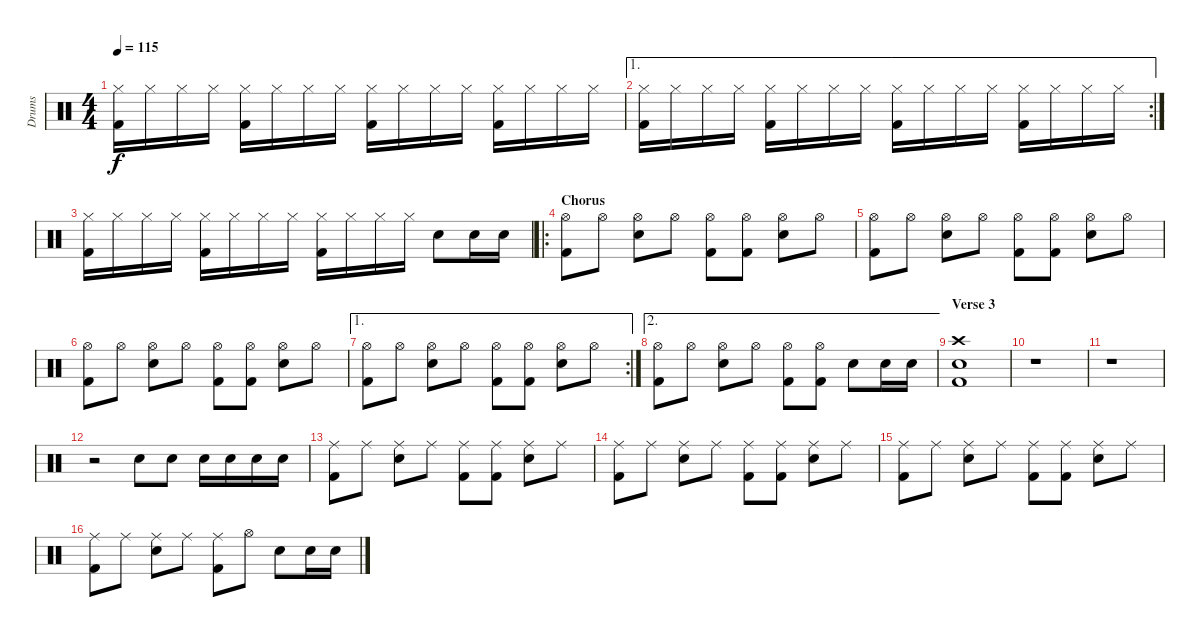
\track ("Drums" "Drums") {instrument percussion}
\staff {score}
\articulation defaults
\ts (4 4)
\tempo 115
\clef neutral
\ks c
("Hi-Hat (closed)" "Kick (hit) 2").16{dy f} "Hi-Hat (closed)".16 "Hi-Hat (closed)".16 "Hi-Hat (closed)".16 ("Hi-Hat (closed)" "Kick (hit) 2").16 "Hi-Hat (closed)".16 "Hi-Hat (closed)".16 "Hi-Hat (closed)".16 ("Hi-Hat (closed)" "Kick (hit) 2").16 "Hi-Hat (closed)".16 "Hi-Hat (closed)".16 "Hi-Hat (closed)".16 ("Hi-Hat (closed)" "Kick (hit) 2").16 "Hi-Hat (closed)".16 "Hi-Hat (closed)".16 "Hi-Hat (closed)".16 |
\ae 1
\rc 2
("Hi-Hat (closed)" "Kick (hit) 2").16 "Hi-Hat (closed)".16 "Hi-Hat (closed)".16 "Hi-Hat (closed)".16 ("Hi-Hat (closed)" "Kick (hit) 2").16 "Hi-Hat (closed)".16 "Hi-Hat (closed)".16 "Hi-Hat (closed)".16 ("Hi-Hat (closed)" "Kick (hit) 2").16 "Hi-Hat (closed)".16 "Hi-Hat (closed)".16 "Hi-Hat (closed)".16 ("Hi-Hat (closed)" "Kick (hit) 2").16 "Hi-Hat (closed)".16 "Hi-Hat (closed)".16 "Hi-Hat (closed)".16 |
("Hi-Hat (closed)" "Kick (hit) 2").16 "Hi-Hat (closed)".16 "Hi-Hat (closed)".16 "Hi-Hat (closed)".16 ("Hi-Hat (closed)" "Kick (hit) 2").16 "Hi-Hat (closed)".16 "Hi-Hat (closed)".16 "Hi-Hat (closed)".16 ("Hi-Hat (closed)" "Kick (hit) 2").16 "Hi-Hat (closed)".16 "Hi-Hat (closed)".16 "Hi-Hat (closed)".16 "Electric Snare (hit)".8 "Electric Snare (hit)".16 "Electric Snare (hit)".16 |
\ro
\section ("" "Chorus")
("Hi-Hat (open)" "Kick (hit) 2").8 "Hi-Hat (open)".8 ("Hi-Hat (open)" "Electric Snare (hit)").8 "Hi-Hat (open)".8 ("Hi-Hat (open)" "Kick (hit) 2").8 ("Hi-Hat (open)" "Kick (hit) 2").8 ("Hi-Hat (open)" "Electric Snare (hit)").8 "Hi-Hat (open)".8 |
("Hi-Hat (open)" "Kick (hit) 2").8 "Hi-Hat (open)".8 ("Hi-Hat (open)" "Electric Snare (hit)").8 "Hi-Hat (open)".8 ("Hi-Hat (open)" "Kick (hit) 2").8 ("Hi-Hat (open)" "Kick (hit) 2").8 ("Hi-Hat (open)" "Electric Snare (hit)").8 "Hi-Hat (open)".8 |
("Hi-Hat (open)" "Kick (hit) 2").8 "Hi-Hat (open)".8 ("Hi-Hat (open)" "Electric Snare (hit)").8 "Hi-Hat (open)".8 ("Hi-Hat (open)" "Kick (hit) 2").8 ("Hi-Hat (open)" "Kick (hit) 2").8 ("Hi-Hat (open)" "Electric Snare (hit)").8 "Hi-Hat (open)".8 |
\ae 1
\rc 2
("Hi-Hat (open)" "Kick (hit) 2").8 "Hi-Hat (open)".8 ("Hi-Hat (open)" "Electric Snare (hit)").8 "Hi-Hat (open)".8 ("Hi-Hat (open)" "Kick (hit) 2").8 ("Hi-Hat (open)" "Kick (hit) 2").8 ("Hi-Hat (open)" "Electric Snare (hit)").8 "Hi-Hat (open)".8 |
\ae 2
("Hi-Hat (open)" "Kick (hit) 2").8 "Hi-Hat (open)".8 ("Hi-Hat (open)" "Electric Snare (hit)").8 "Hi-Hat (open)".8 ("Hi-Hat (open)" "Kick (hit) 2").8 ("Hi-Hat (open)" "Kick (hit) 2").8 "Electric Snare (hit)".8 "Electric Snare (hit)".16 "Electric Snare (hit)".16 |
\section ("" "Verse 3")
("Crash high (hit)" "Kick (hit) 2" "Electric Snare (hit)").1 |
r.1 |
r.1 |
r.2 "Electric Snare (hit)".8 "Electric Snare (hit)".8 "Electric Snare (hit)".16 "Electric Snare (hit)".16 "Electric Snare (hit)".16 "Electric Snare (hit)".16 |
("Ride (middle)" "Kick (hit) 2").8 "Ride (middle)".8 ("Ride (middle)" "Electric Snare (hit)").8 "Ride (middle)".8 ("Ride (middle)" "Kick (hit) 2").8 ("Ride (middle)" "Kick (hit) 2").8 ("Ride (middle)" "Electric Snare (hit)").8 "Ride (middle)".8 |
("Ride (middle)" "Kick (hit) 2").8 "Ride (middle)".8 ("Ride (middle)" "Electric Snare (hit)").8 "Ride (middle)".8 ("Ride (middle)" "Kick (hit) 2").8 ("Ride (middle)" "Kick (hit) 2").8 ("Ride (middle)" "Electric Snare (hit)").8 "Ride (middle)".8 |
("Ride (middle)" "Kick (hit) 2").8 "Ride (middle)".8 ("Ride (middle)" "Electric Snare (hit)").8 "Ride (middle)".8 ("Ride (middle)" "Kick (hit) 2").8 ("Ride (middle)" "Kick (hit) 2").8 ("Ride (middle)" "Electric Snare (hit)").8 "Ride (middle)".8 |
("Ride (middle)" "Kick (hit) 2").8 "Ride (middle)".8 ("Ride (middle)" "Electric Snare (hit)").8 "Ride (middle)".8 ("Ride (middle)" "Kick (hit) 2").8 "Hi-Hat (open)".8 "Electric Snare (hit)".8 "Electric Snare (hit)".16 "Electric Snare (hit)".16
